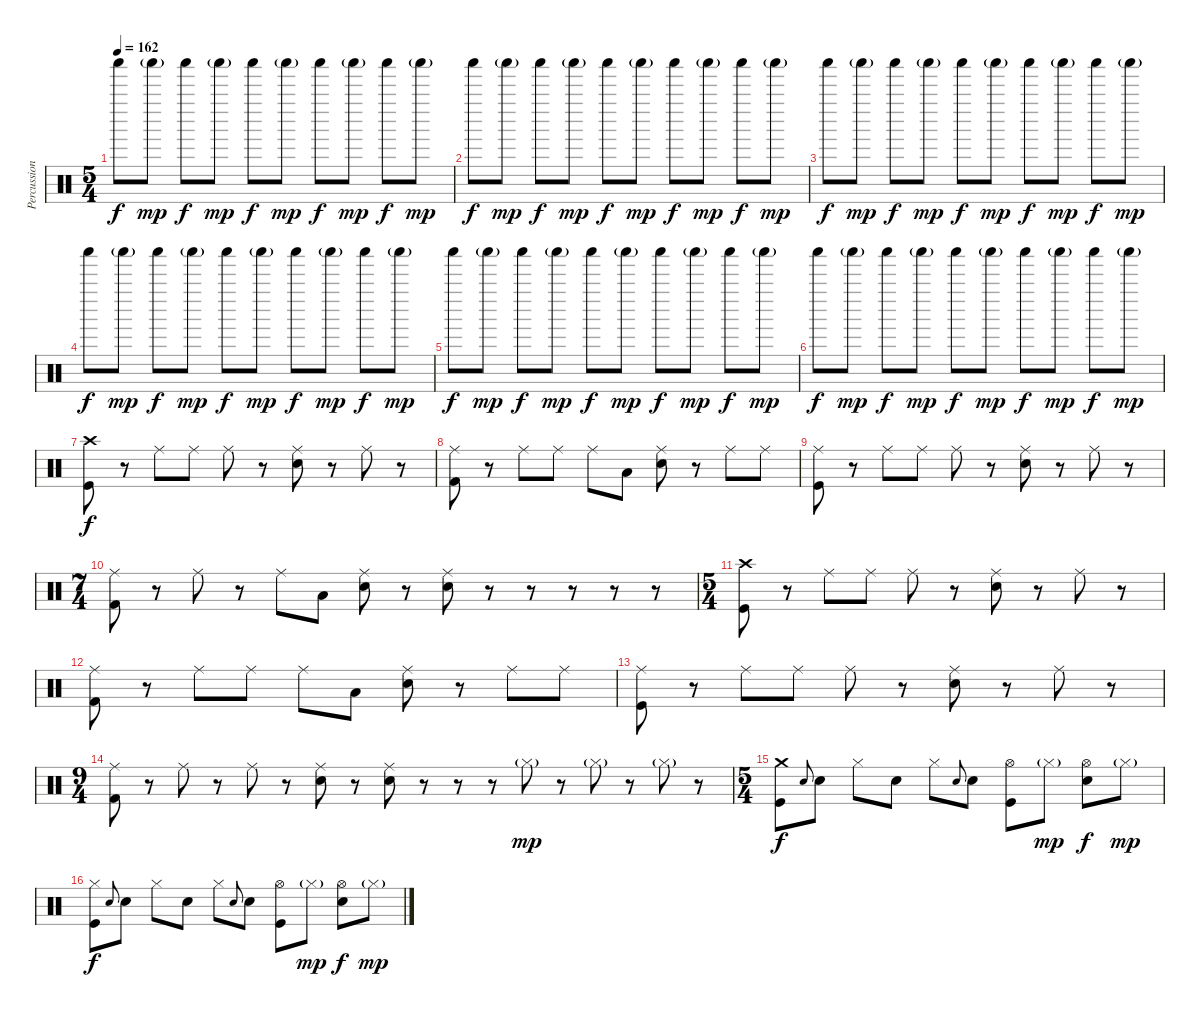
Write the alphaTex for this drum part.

\track ("Percussion" "Percussion") {instrument percussion}
\staff {score}
\articulation defaults
\ts (5 4)
\tempo 162
\clef neutral
\ks c "Shaker (hit)".8{dy f} "Shaker (hit)"{g}.8{dy mp} "Shaker (hit)".8{dy f} "Shaker (hit)"{g}.8{dy mp} "Shaker (hit)".8{dy f} "Shaker (hit)"{g}.8{dy mp} "Shaker (hit)".8{dy f} "Shaker (hit)"{g}.8{dy mp} "Shaker (hit)".8{dy f} "Shaker (hit)"{g}.8{dy mp}
|
"Shaker (hit)".8{dy f} "Shaker (hit)"{g}.8{dy mp} "Shaker (hit)".8{dy f} "Shaker (hit)"{g}.8{dy mp} "Shaker (hit)".8{dy f} "Shaker (hit)"{g}.8{dy mp} "Shaker (hit)".8{dy f} "Shaker (hit)"{g}.8{dy mp} "Shaker (hit)".8{dy f} "Shaker (hit)"{g}.8{dy mp} |
"Shaker (hit)".8{dy f} "Shaker (hit)"{g}.8{dy mp} "Shaker (hit)".8{dy f} "Shaker (hit)"{g}.8{dy mp} "Shaker (hit)".8{dy f} "Shaker (hit)"{g}.8{dy mp} "Shaker (hit)".8{dy f} "Shaker (hit)"{g}.8{dy mp} "Shaker (hit)".8{dy f} "Shaker (hit)"{g}.8{dy mp} |
"Shaker (hit)".8{dy f} "Shaker (hit)"{g}.8{dy mp} "Shaker (hit)".8{dy f} "Shaker (hit)"{g}.8{dy mp} "Shaker (hit)".8{dy f} "Shaker (hit)"{g}.8{dy mp} "Shaker (hit)".8{dy f} "Shaker (hit)"{g}.8{dy mp} "Shaker (hit)".8{dy f} "Shaker (hit)"{g}.8{dy mp} |
"Shaker (hit)".8{dy f} "Shaker (hit)"{g}.8{dy mp} "Shaker (hit)".8{dy f} "Shaker (hit)"{g}.8{dy mp} "Shaker (hit)".8{dy f} "Shaker (hit)"{g}.8{dy mp} "Shaker (hit)".8{dy f} "Shaker (hit)"{g}.8{dy mp} "Shaker (hit)".8{dy f} "Shaker (hit)"{g}.8{dy mp} |
"Shaker (hit)".8{dy f} "Shaker (hit)"{g}.8{dy mp} "Shaker (hit)".8{dy f} "Shaker (hit)"{g}.8{dy mp} "Shaker (hit)".8{dy f} "Shaker (hit)"{g}.8{dy mp} "Shaker (hit)".8{dy f} "Shaker (hit)"{g}.8{dy mp} "Shaker (hit)".8{dy f} "Shaker (hit)"{g}.8{dy mp} |
("Crash high (hit)" "Kick (hit)").8{dy f} r.8 "Ride (middle)".8 "Ride (middle)".8 "Ride (middle)".8 r.8 ("Ride (middle)" "Snare (hit) 2").8 r.8 "Ride (middle)".8 r.8 |
("Ride (middle)" "Kick (hit) 2").8 r.8 "Ride (middle)".8 "Ride (middle)".8 "Ride (middle)".8 "Low Tom (hit)".8 ("Ride (middle)" "Snare (hit) 2").8 r.8 "Ride (middle)".8 "Ride (middle)".8 |
("Ride (middle)" "Kick (hit)").8 r.8 "Ride (middle)".8 "Ride (middle)".8 "Ride (middle)".8 r.8 ("Ride (middle)" "Snare (hit) 2").8 r.8 "Ride (middle)".8 r.8 |
\ts (7 4)
("Ride (middle)" "Kick (hit) 2").8 r.8 "Ride (middle)".8 r.8 "Ride (middle)".8 "Low Tom (hit)".8 ("Ride (middle)" "Snare (hit) 2").8 r.8 ("Ride (middle)" "Snare (hit) 2").8 r.8 r.8 r.8 r.8 r.8 |
\ts (5 4)
("Crash high (hit)" "Kick (hit)").8 r.8 "Ride (middle)".8 "Ride (middle)".8 "Ride (middle)".8 r.8 ("Ride (middle)" "Snare (hit) 2").8 r.8 "Ride (middle)".8 r.8 |
("Ride (middle)" "Kick (hit) 2").8 r.8 "Ride (middle)".8 "Ride (middle)".8 "Ride (middle)".8 "Low Tom (hit)".8 ("Ride (middle)" "Snare (hit) 2").8 r.8 "Ride (middle)".8 "Ride (middle)".8 |
("Ride (middle)" "Kick (hit)").8 r.8 "Ride (middle)".8 "Ride (middle)".8 "Ride (middle)".8 r.8 ("Ride (middle)" "Snare (hit) 2").8 r.8 "Ride (middle)".8 r.8 |
\ts (9 4)
("Ride (middle)" "Kick (hit) 2").8 r.8 "Ride (middle)".8 r.8 "Ride (middle)".8 r.8 ("Ride (middle)" "Snare (hit) 2").8 r.8 ("Ride (middle)" "Snare (hit) 2").8 r.8 r.8 r.8 "Hi-Hat (closed)"{g}.8{dy mp} r.8 "Hi-Hat (closed)"{g}.8 r.8 "Hi-Hat (closed)"{g}.8 r.8 |
\ts (5 4)
("Crash medium (hit)" "Kick (hit)").8{dy f} "Snare (hit) 2".8{gr onbeat} "Snare (hit) 2".8 "Hi-Hat (closed)".8 "Snare (hit) 2".8 "Hi-Hat (closed)".8 "Snare (hit) 2".8{gr onbeat} "Snare (hit) 2".8 ("Hi-Hat (open)" "Kick (hit)").8 "Hi-Hat (closed)"{g}.8{dy mp} ("Hi-Hat (open)" "Snare (hit) 2").8{dy f} "Hi-Hat (closed)"{g}.8{dy mp} |
("Hi-Hat (closed)" "Kick (hit)").8{dy f} "Snare (hit) 2".8{gr onbeat} "Snare (hit) 2".8 "Hi-Hat (closed)".8 "Snare (hit) 2".8 "Hi-Hat (closed)".8 "Snare (hit) 2".8{gr onbeat} "Snare (hit) 2".8 ("Hi-Hat (open)" "Kick (hit)").8 "Hi-Hat (closed)"{g}.8{dy mp} ("Hi-Hat (open)" "Snare (hit) 2").8{dy f} "Hi-Hat (closed)"{g}.8{dy mp}
